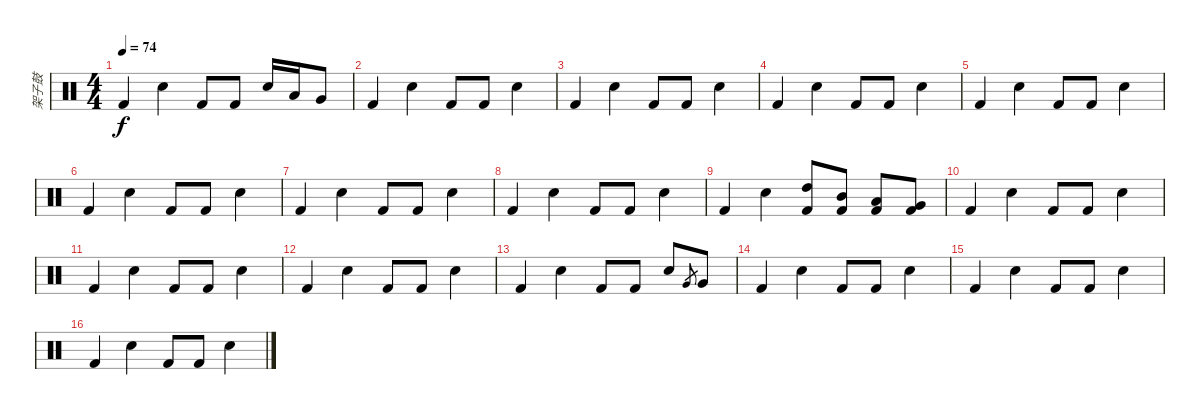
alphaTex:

\track ("架子鼓" "架子鼓") {instrument percussion}
\staff {score}
\articulation defaults
\ts (4 4)
\tempo 74
\clef neutral
\ks c "Kick (hit) 2".4{dy f} "Electric Snare (hit)".4 "Kick (hit) 2".8 "Kick (hit) 2".8 "Electric Snare (hit)".16 "Low Tom (hit)".16 "Very Low Tom (hit)".8
|
"Kick (hit) 2".4 "Electric Snare (hit)".4 "Kick (hit) 2".8 "Kick (hit) 2".8 "Electric Snare (hit)".4 |
"Kick (hit) 2".4 "Electric Snare (hit)".4 "Kick (hit) 2".8 "Kick (hit) 2".8 "Electric Snare (hit)".4 |
"Kick (hit) 2".4 "Electric Snare (hit)".4 "Kick (hit) 2".8 "Kick (hit) 2".8 "Electric Snare (hit)".4 |
"Kick (hit) 2".4 "Electric Snare (hit)".4 "Kick (hit) 2".8 "Kick (hit) 2".8 "Electric Snare (hit)".4 |
"Kick (hit) 2".4 "Electric Snare (hit)".4 "Kick (hit) 2".8 "Kick (hit) 2".8 "Electric Snare (hit)".4 |
"Kick (hit) 2".4 "Electric Snare (hit)".4 "Kick (hit) 2".8 "Kick (hit) 2".8 "Electric Snare (hit)".4 |
"Kick (hit) 2".4 "Electric Snare (hit)".4 "Kick (hit) 2".8 "Kick (hit) 2".8 "Electric Snare (hit)".4 |
"Kick (hit) 2".4 "Electric Snare (hit)".4 ("Kick (hit) 2" "High Tom (hit)").8 ("Kick (hit) 2" "Mid Tom (hit)").8 ("Kick (hit) 2" "Low Tom (hit)").8 ("Kick (hit) 2" "Very Low Tom (hit)").8 |
"Kick (hit) 2".4 "Electric Snare (hit)".4 "Kick (hit) 2".8 "Kick (hit) 2".8 "Electric Snare (hit)".4 |
"Kick (hit) 2".4 "Electric Snare (hit)".4 "Kick (hit) 2".8 "Kick (hit) 2".8 "Electric Snare (hit)".4 |
"Kick (hit) 2".4 "Electric Snare (hit)".4 "Kick (hit) 2".8 "Kick (hit) 2".8 "Electric Snare (hit)".4 |
"Kick (hit) 2".4 "Electric Snare (hit)".4 "Kick (hit) 2".8 "Kick (hit) 2".8 "Electric Snare (hit)".8 "Very Low Tom (hit)".8{gr} "Very Low Tom (hit)".8 |
"Kick (hit) 2".4 "Electric Snare (hit)".4 "Kick (hit) 2".8 "Kick (hit) 2".8 "Electric Snare (hit)".4 |
"Kick (hit) 2".4 "Electric Snare (hit)".4 "Kick (hit) 2".8 "Kick (hit) 2".8 "Electric Snare (hit)".4 |
"Kick (hit) 2".4 "Electric Snare (hit)".4 "Kick (hit) 2".8 "Kick (hit) 2".8 "Electric Snare (hit)".4
